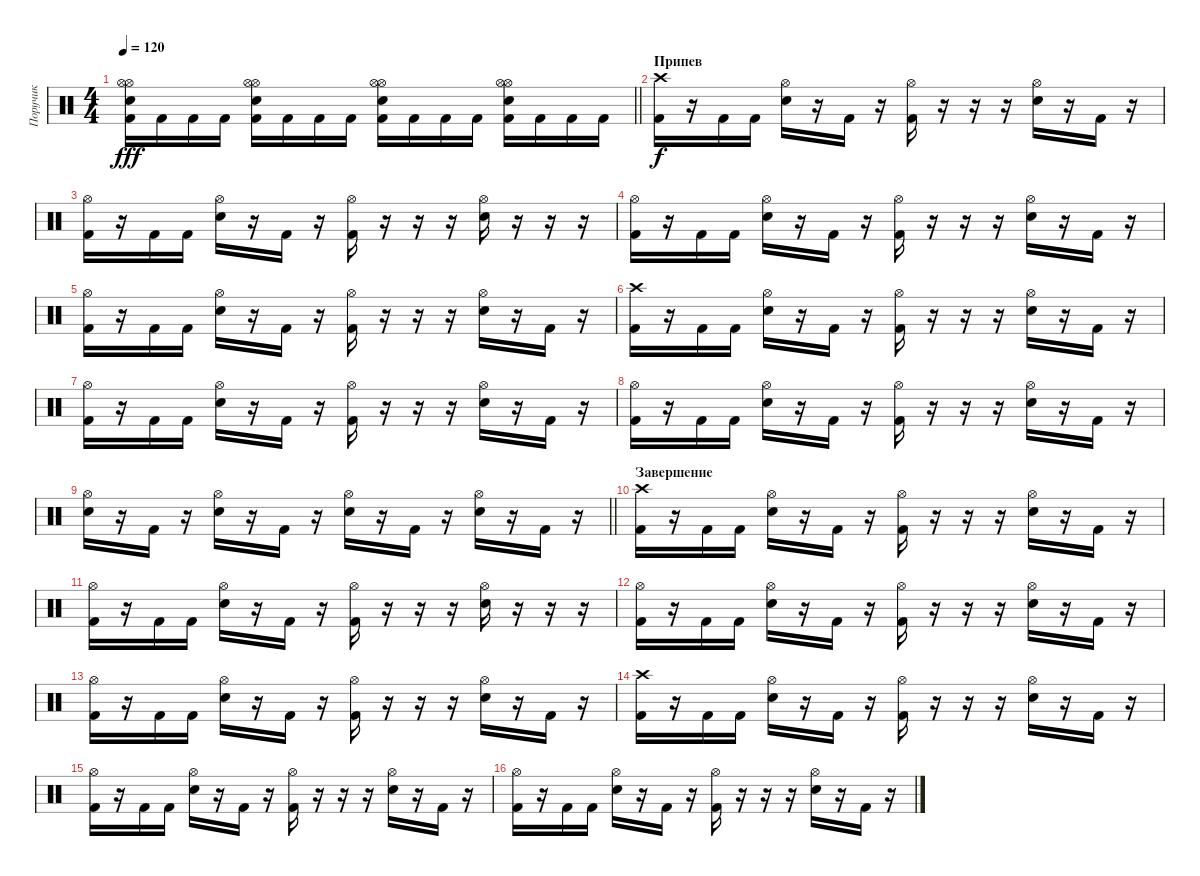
\track ("Поручик" "Поручик") {instrument percussion}
\staff {score}
\articulation defaults
\ts (4 4)
\tempo 120
\clef neutral
\barLineRight lightlight
\ks c
("Hi-Hat (open)" "Hi-Hat (open)" "Electric Snare (hit)" "Kick (hit) 2").16{dy fff} "Kick (hit) 2".16 "Kick (hit) 2".16 "Kick (hit) 2".16 ("Hi-Hat (open)" "Hi-Hat (open)" "Electric Snare (hit)" "Kick (hit) 2").16 "Kick (hit) 2".16 "Kick (hit) 2".16 "Kick (hit) 2".16 ("Hi-Hat (open)" "Hi-Hat (open)" "Electric Snare (hit)" "Kick (hit) 2").16 "Kick (hit) 2".16 "Kick (hit) 2".16 "Kick (hit) 2".16 ("Hi-Hat (open)" "Hi-Hat (open)" "Electric Snare (hit)" "Kick (hit) 2").16 "Kick (hit) 2".16 "Kick (hit) 2".16 "Kick (hit) 2".16 |
\section ("" "Припев")
("Crash high (hit)" "Kick (hit) 2").16{dy f} r.16 "Kick (hit) 2".16 "Kick (hit) 2".16 ("Hi-Hat (open)" "Snare (hit) 2").16 r.16 "Kick (hit) 2".16 r.16 ("Hi-Hat (open)" "Kick (hit) 2").16 r.16 r.16 r.16 ("Hi-Hat (open)" "Snare (hit) 2").16 r.16 "Kick (hit) 2".16 r.16 |
("Hi-Hat (open)" "Kick (hit) 2").16 r.16 "Kick (hit) 2".16 "Kick (hit) 2".16 ("Hi-Hat (open)" "Snare (hit) 2").16 r.16 "Kick (hit) 2".16 r.16 ("Hi-Hat (open)" "Kick (hit) 2").16 r.16 r.16 r.16 ("Hi-Hat (open)" "Snare (hit) 2").16 r.16 r.16 r.16 |
("Hi-Hat (open)" "Kick (hit) 2").16 r.16 "Kick (hit) 2".16 "Kick (hit) 2".16 ("Hi-Hat (open)" "Snare (hit) 2").16 r.16 "Kick (hit) 2".16 r.16 ("Hi-Hat (open)" "Kick (hit) 2").16 r.16 r.16 r.16 ("Hi-Hat (open)" "Snare (hit) 2").16 r.16 "Kick (hit) 2".16 r.16 |
("Hi-Hat (open)" "Kick (hit) 2").16 r.16 "Kick (hit) 2".16 "Kick (hit) 2".16 ("Hi-Hat (open)" "Snare (hit) 2").16 r.16 "Kick (hit) 2".16 r.16 ("Hi-Hat (open)" "Kick (hit) 2").16 r.16 r.16 r.16 ("Hi-Hat (open)" "Snare (hit) 2").16 r.16 "Kick (hit) 2".16 r.16 |
("Crash high (hit)" "Kick (hit) 2").16 r.16 "Kick (hit) 2".16 "Kick (hit) 2".16 ("Hi-Hat (open)" "Snare (hit) 2").16 r.16 "Kick (hit) 2".16 r.16 ("Hi-Hat (open)" "Kick (hit) 2").16 r.16 r.16 r.16 ("Hi-Hat (open)" "Snare (hit) 2").16 r.16 "Kick (hit) 2".16 r.16 |
("Hi-Hat (open)" "Kick (hit) 2").16 r.16 "Kick (hit) 2".16 "Kick (hit) 2".16 ("Hi-Hat (open)" "Snare (hit) 2").16 r.16 "Kick (hit) 2".16 r.16 ("Hi-Hat (open)" "Kick (hit) 2").16 r.16 r.16 r.16 ("Hi-Hat (open)" "Snare (hit) 2").16 r.16 "Kick (hit) 2".16 r.16 |
("Hi-Hat (open)" "Kick (hit) 2").16 r.16 "Kick (hit) 2".16 "Kick (hit) 2".16 ("Hi-Hat (open)" "Snare (hit) 2").16 r.16 "Kick (hit) 2".16 r.16 ("Hi-Hat (open)" "Kick (hit) 2").16 r.16 r.16 r.16 ("Hi-Hat (open)" "Snare (hit) 2").16 r.16 "Kick (hit) 2".16 r.16 |
\barLineRight lightlight
("Hi-Hat (open)" "Snare (hit) 2").16 r.16 "Kick (hit) 2".16 r.16 ("Hi-Hat (open)" "Snare (hit) 2").16 r.16 "Kick (hit) 2".16 r.16 ("Hi-Hat (open)" "Snare (hit) 2").16 r.16 "Kick (hit) 2".16 r.16 ("Hi-Hat (open)" "Snare (hit) 2").16 r.16 "Kick (hit) 2".16 r.16 |
\section ("" "Завершение")
("Crash high (hit)" "Kick (hit) 2").16 r.16 "Kick (hit) 2".16 "Kick (hit) 2".16 ("Hi-Hat (open)" "Snare (hit) 2").16 r.16 "Kick (hit) 2".16 r.16 ("Hi-Hat (open)" "Kick (hit) 2").16 r.16 r.16 r.16 ("Hi-Hat (open)" "Snare (hit) 2").16 r.16 "Kick (hit) 2".16 r.16 |
("Hi-Hat (open)" "Kick (hit) 2").16 r.16 "Kick (hit) 2".16 "Kick (hit) 2".16 ("Hi-Hat (open)" "Snare (hit) 2").16 r.16 "Kick (hit) 2".16 r.16 ("Hi-Hat (open)" "Kick (hit) 2").16 r.16 r.16 r.16 ("Hi-Hat (open)" "Snare (hit) 2").16 r.16 r.16 r.16 |
("Hi-Hat (open)" "Kick (hit) 2").16 r.16 "Kick (hit) 2".16 "Kick (hit) 2".16 ("Hi-Hat (open)" "Snare (hit) 2").16 r.16 "Kick (hit) 2".16 r.16 ("Hi-Hat (open)" "Kick (hit) 2").16 r.16 r.16 r.16 ("Hi-Hat (open)" "Snare (hit) 2").16 r.16 "Kick (hit) 2".16 r.16 |
("Hi-Hat (open)" "Kick (hit) 2").16 r.16 "Kick (hit) 2".16 "Kick (hit) 2".16 ("Hi-Hat (open)" "Snare (hit) 2").16 r.16 "Kick (hit) 2".16 r.16 ("Hi-Hat (open)" "Kick (hit) 2").16 r.16 r.16 r.16 ("Hi-Hat (open)" "Snare (hit) 2").16 r.16 "Kick (hit) 2".16 r.16 |
("Crash high (hit)" "Kick (hit) 2").16 r.16 "Kick (hit) 2".16 "Kick (hit) 2".16 ("Hi-Hat (open)" "Snare (hit) 2").16 r.16 "Kick (hit) 2".16 r.16 ("Hi-Hat (open)" "Kick (hit) 2").16 r.16 r.16 r.16 ("Hi-Hat (open)" "Snare (hit) 2").16 r.16 "Kick (hit) 2".16 r.16 |
("Hi-Hat (open)" "Kick (hit) 2").16 r.16 "Kick (hit) 2".16 "Kick (hit) 2".16 ("Hi-Hat (open)" "Snare (hit) 2").16 r.16 "Kick (hit) 2".16 r.16 ("Hi-Hat (open)" "Kick (hit) 2").16 r.16 r.16 r.16 ("Hi-Hat (open)" "Snare (hit) 2").16 r.16 "Kick (hit) 2".16 r.16 |
("Hi-Hat (open)" "Kick (hit) 2").16 r.16 "Kick (hit) 2".16 "Kick (hit) 2".16 ("Hi-Hat (open)" "Snare (hit) 2").16 r.16 "Kick (hit) 2".16 r.16 ("Hi-Hat (open)" "Kick (hit) 2").16 r.16 r.16 r.16 ("Hi-Hat (open)" "Snare (hit) 2").16 r.16 "Kick (hit) 2".16 r.16
